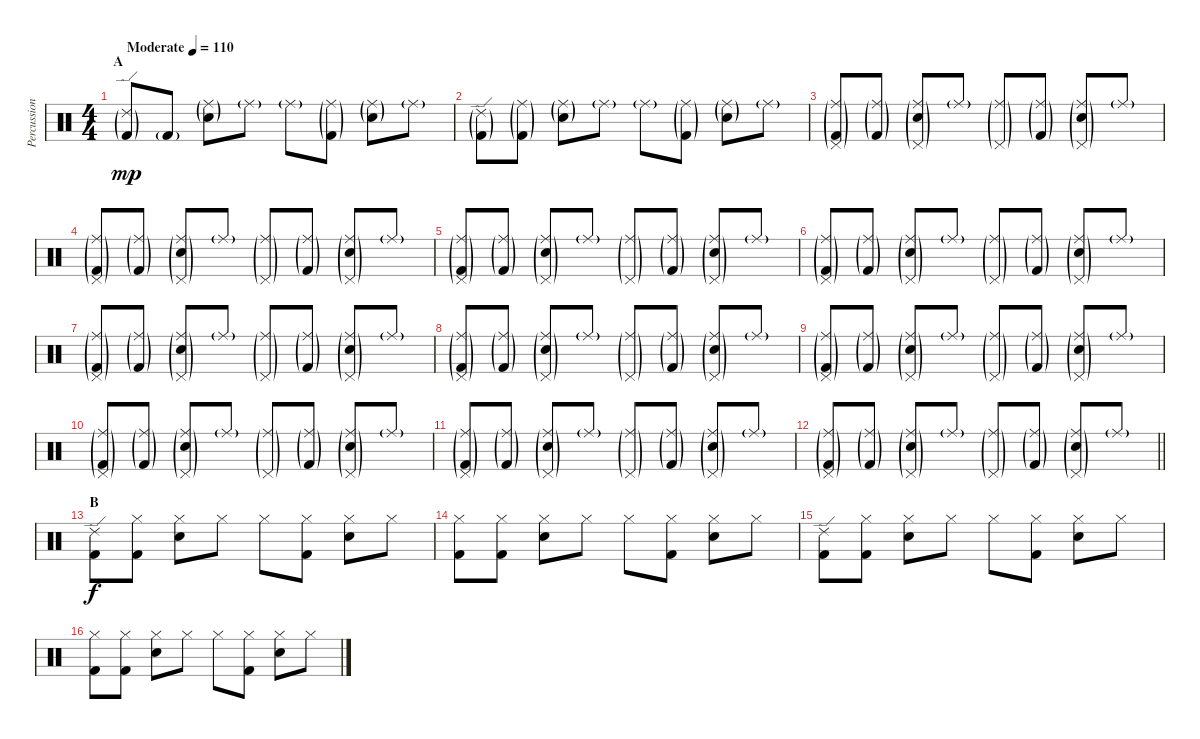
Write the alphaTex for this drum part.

\track ("Percussion" "Percussion") {instrument percussion}
\staff {score}
\articulation defaults
\ts (4 4)
\section ("" "A")
\tempo (110 "Moderate")
\clef neutral
\ks c
("Ride (edge) 2"{g} "Kick (hit) 2"{g}).8{dy mp} "Kick (hit) 2"{g}.8 ("Ride (middle)"{g} "Electric Snare (hit)"{g}).8 "Ride (middle)"{g}.8 "Ride (middle)"{g}.8 ("Ride (middle)"{g} "Kick (hit) 2"{g}).8 ("Ride (middle)"{g} "Electric Snare (hit)"{g}).8 "Ride (middle)"{g}.8 |
("Ride (edge) 2"{g} "Kick (hit) 2"{g}).8 ("Ride (middle)"{g} "Kick (hit) 2"{g}).8 ("Ride (middle)"{g} "Electric Snare (hit)"{g}).8 "Ride (middle)"{g}.8 "Ride (middle)"{g}.8 ("Ride (middle)"{g} "Kick (hit) 2"{g}).8 ("Ride (middle)"{g} "Electric Snare (hit)"{g}).8 "Ride (middle)"{g}.8 |
("Ride (middle)"{g} "Pedal Hi-Hat (hit)"{g} "Kick (hit) 2"{g}).8 ("Ride (middle)"{g} "Kick (hit) 2"{g}).8 ("Ride (middle)"{g} "Pedal Hi-Hat (hit)"{g} "Electric Snare (hit)"{g}).8 "Ride (middle)"{g}.8 ("Ride (middle)"{g} "Pedal Hi-Hat (hit)"{g}).8 ("Ride (middle)"{g} "Kick (hit) 2"{g}).8 ("Ride (middle)"{g} "Pedal Hi-Hat (hit)"{g} "Electric Snare (hit)"{g}).8 "Ride (middle)"{g}.8 |
("Ride (middle)"{g} "Pedal Hi-Hat (hit)"{g} "Kick (hit) 2"{g}).8 ("Ride (middle)"{g} "Kick (hit) 2"{g}).8 ("Ride (middle)"{g} "Pedal Hi-Hat (hit)"{g} "Electric Snare (hit)"{g}).8 "Ride (middle)"{g}.8 ("Ride (middle)"{g} "Pedal Hi-Hat (hit)"{g}).8 ("Ride (middle)"{g} "Kick (hit) 2"{g}).8 ("Ride (middle)"{g} "Pedal Hi-Hat (hit)"{g} "Electric Snare (hit)"{g}).8 "Ride (middle)"{g}.8 |
("Ride (middle)"{g} "Pedal Hi-Hat (hit)"{g} "Kick (hit) 2"{g}).8 ("Ride (middle)"{g} "Kick (hit) 2"{g}).8 ("Ride (middle)"{g} "Pedal Hi-Hat (hit)"{g} "Electric Snare (hit)"{g}).8 "Ride (middle)"{g}.8 ("Ride (middle)"{g} "Pedal Hi-Hat (hit)"{g}).8 ("Ride (middle)"{g} "Kick (hit) 2"{g}).8 ("Ride (middle)"{g} "Pedal Hi-Hat (hit)"{g} "Electric Snare (hit)"{g}).8 "Ride (middle)"{g}.8 |
("Ride (middle)"{g} "Pedal Hi-Hat (hit)"{g} "Kick (hit) 2"{g}).8 ("Ride (middle)"{g} "Kick (hit) 2"{g}).8 ("Ride (middle)"{g} "Pedal Hi-Hat (hit)"{g} "Electric Snare (hit)"{g}).8 "Ride (middle)"{g}.8 ("Ride (middle)"{g} "Pedal Hi-Hat (hit)"{g}).8 ("Ride (middle)"{g} "Kick (hit) 2"{g}).8 ("Ride (middle)"{g} "Pedal Hi-Hat (hit)"{g} "Electric Snare (hit)"{g}).8 "Ride (middle)"{g}.8 |
("Ride (middle)"{g} "Pedal Hi-Hat (hit)"{g} "Kick (hit) 2"{g}).8 ("Ride (middle)"{g} "Kick (hit) 2"{g}).8 ("Ride (middle)"{g} "Pedal Hi-Hat (hit)"{g} "Electric Snare (hit)"{g}).8 "Ride (middle)"{g}.8 ("Ride (middle)"{g} "Pedal Hi-Hat (hit)"{g}).8 ("Ride (middle)"{g} "Kick (hit) 2"{g}).8 ("Ride (middle)"{g} "Pedal Hi-Hat (hit)"{g} "Electric Snare (hit)"{g}).8 "Ride (middle)"{g}.8 |
("Ride (middle)"{g} "Pedal Hi-Hat (hit)"{g} "Kick (hit) 2"{g}).8 ("Ride (middle)"{g} "Kick (hit) 2"{g}).8 ("Ride (middle)"{g} "Pedal Hi-Hat (hit)"{g} "Electric Snare (hit)"{g}).8 "Ride (middle)"{g}.8 ("Ride (middle)"{g} "Pedal Hi-Hat (hit)"{g}).8 ("Ride (middle)"{g} "Kick (hit) 2"{g}).8 ("Ride (middle)"{g} "Pedal Hi-Hat (hit)"{g} "Electric Snare (hit)"{g}).8 "Ride (middle)"{g}.8 |
("Ride (middle)"{g} "Pedal Hi-Hat (hit)"{g} "Kick (hit) 2"{g}).8 ("Ride (middle)"{g} "Kick (hit) 2"{g}).8 ("Ride (middle)"{g} "Pedal Hi-Hat (hit)"{g} "Electric Snare (hit)"{g}).8 "Ride (middle)"{g}.8 ("Ride (middle)"{g} "Pedal Hi-Hat (hit)"{g}).8 ("Ride (middle)"{g} "Kick (hit) 2"{g}).8 ("Ride (middle)"{g} "Pedal Hi-Hat (hit)"{g} "Electric Snare (hit)"{g}).8 "Ride (middle)"{g}.8 |
("Ride (middle)"{g} "Pedal Hi-Hat (hit)"{g} "Kick (hit) 2"{g}).8 ("Ride (middle)"{g} "Kick (hit) 2"{g}).8 ("Ride (middle)"{g} "Pedal Hi-Hat (hit)"{g} "Electric Snare (hit)"{g}).8 "Ride (middle)"{g}.8 ("Ride (middle)"{g} "Pedal Hi-Hat (hit)"{g}).8 ("Ride (middle)"{g} "Kick (hit) 2"{g}).8 ("Ride (middle)"{g} "Pedal Hi-Hat (hit)"{g} "Electric Snare (hit)"{g}).8 "Ride (middle)"{g}.8 |
("Ride (middle)"{g} "Pedal Hi-Hat (hit)"{g} "Kick (hit) 2"{g}).8 ("Ride (middle)"{g} "Kick (hit) 2"{g}).8 ("Ride (middle)"{g} "Pedal Hi-Hat (hit)"{g} "Electric Snare (hit)"{g}).8 "Ride (middle)"{g}.8 ("Ride (middle)"{g} "Pedal Hi-Hat (hit)"{g}).8 ("Ride (middle)"{g} "Kick (hit) 2"{g}).8 ("Ride (middle)"{g} "Pedal Hi-Hat (hit)"{g} "Electric Snare (hit)"{g}).8 "Ride (middle)"{g}.8 |
\barLineRight lightlight
("Ride (middle)"{g} "Pedal Hi-Hat (hit)"{g} "Kick (hit) 2"{g}).8 ("Ride (middle)"{g} "Kick (hit) 2"{g}).8 ("Ride (middle)"{g} "Pedal Hi-Hat (hit)"{g} "Electric Snare (hit)"{g}).8 "Ride (middle)"{g}.8 ("Ride (middle)"{g} "Pedal Hi-Hat (hit)"{g}).8 ("Ride (middle)"{g} "Kick (hit) 2"{g}).8 ("Ride (middle)"{g} "Pedal Hi-Hat (hit)"{g} "Electric Snare (hit)"{g}).8 "Ride (middle)"{g}.8 |
\section ("" "B")
("Ride (edge) 2" "Kick (hit) 2").8{dy f} ("Hi-Hat (closed)" "Kick (hit) 2").8 ("Hi-Hat (closed)" "Electric Snare (hit)").8 "Hi-Hat (closed)".8 "Hi-Hat (closed)".8 ("Hi-Hat (closed)" "Kick (hit) 2").8 ("Hi-Hat (closed)" "Electric Snare (hit)").8 "Hi-Hat (closed)".8 |
("Hi-Hat (closed)" "Kick (hit) 2").8 ("Hi-Hat (closed)" "Kick (hit) 2").8 ("Hi-Hat (closed)" "Electric Snare (hit)").8 "Hi-Hat (closed)".8 "Hi-Hat (closed)".8 ("Hi-Hat (closed)" "Kick (hit) 2").8 ("Hi-Hat (closed)" "Electric Snare (hit)").8 "Hi-Hat (closed)".8 |
("Ride (edge) 2" "Kick (hit) 2").8 ("Hi-Hat (closed)" "Kick (hit) 2").8 ("Hi-Hat (closed)" "Electric Snare (hit)").8 "Hi-Hat (closed)".8 "Hi-Hat (closed)".8 ("Hi-Hat (closed)" "Kick (hit) 2").8 ("Hi-Hat (closed)" "Electric Snare (hit)").8 "Hi-Hat (closed)".8 |
("Hi-Hat (closed)" "Kick (hit) 2").8 ("Hi-Hat (closed)" "Kick (hit) 2").8 ("Hi-Hat (closed)" "Electric Snare (hit)").8 "Hi-Hat (closed)".8 "Hi-Hat (closed)".8 ("Hi-Hat (closed)" "Kick (hit) 2").8 ("Hi-Hat (closed)" "Electric Snare (hit)").8 "Hi-Hat (closed)".8
